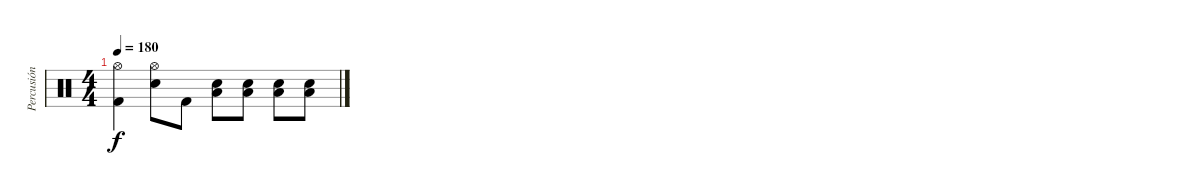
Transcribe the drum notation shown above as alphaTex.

\track ("Percusión" "Percusión") {instrument percussion}
\staff {score}
\articulation defaults
\ts (4 4)
\tempo 180
\clef neutral
\ks c
("Hi-Hat (open)" "Kick (hit) 2").4{dy f} ("Hi-Hat (open)" "Electric Snare (hit)").8 "Kick (hit) 2".8 ("Electric Snare (hit)" "Low Floor Tom (hit)").8 ("Electric Snare (hit)" "Low Floor Tom (hit)").8 ("Electric Snare (hit)" "Low Floor Tom (hit)").8 ("Electric Snare (hit)" "Low Floor Tom (hit)").8
